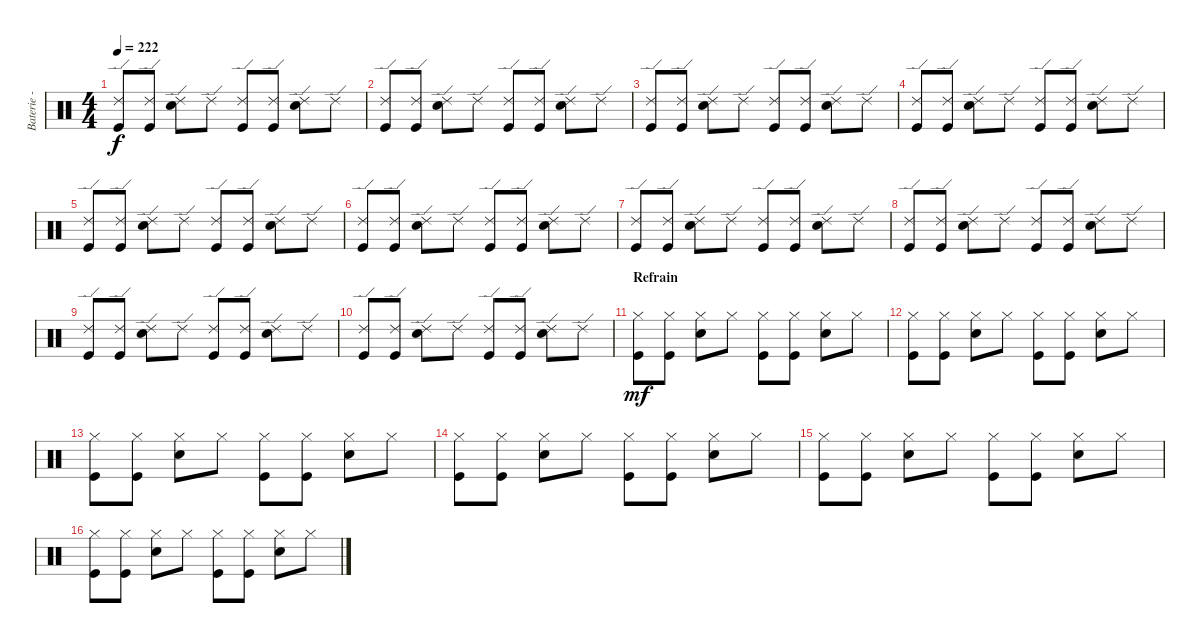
\track ("Baterie - Guillaume" "Baterie - ") {instrument percussion}
\staff {score}
\articulation defaults
\ts (4 4)
\tempo 222
\clef neutral
\ks c
("Ride (edge) 2" "Kick (hit)").8{dy f} ("Ride (edge) 2" "Kick (hit)").8 ("Ride (edge) 2" "Snare (hit) 2").8 "Ride (edge) 2".8 ("Ride (edge) 2" "Kick (hit)").8 ("Ride (edge) 2" "Kick (hit)").8 ("Ride (edge) 2" "Snare (hit) 2").8 "Ride (edge) 2".8 |
("Ride (edge) 2" "Kick (hit)").8 ("Ride (edge) 2" "Kick (hit)").8 ("Ride (edge) 2" "Snare (hit) 2").8 "Ride (edge) 2".8 ("Ride (edge) 2" "Kick (hit)").8 ("Ride (edge) 2" "Kick (hit)").8 ("Ride (edge) 2" "Snare (hit) 2").8 "Ride (edge) 2".8 |
("Ride (edge) 2" "Kick (hit)").8 ("Ride (edge) 2" "Kick (hit)").8 ("Ride (edge) 2" "Snare (hit) 2").8 "Ride (edge) 2".8 ("Ride (edge) 2" "Kick (hit)").8 ("Ride (edge) 2" "Kick (hit)").8 ("Ride (edge) 2" "Snare (hit) 2").8 "Ride (edge) 2".8 |
("Ride (edge) 2" "Kick (hit)").8 ("Ride (edge) 2" "Kick (hit)").8 ("Ride (edge) 2" "Snare (hit) 2").8 "Ride (edge) 2".8 ("Ride (edge) 2" "Kick (hit)").8 ("Ride (edge) 2" "Kick (hit)").8 ("Ride (edge) 2" "Snare (hit) 2").8 "Ride (edge) 2".8 |
("Ride (edge) 2" "Kick (hit)").8 ("Ride (edge) 2" "Kick (hit)").8 ("Ride (edge) 2" "Snare (hit) 2").8 "Ride (edge) 2".8 ("Ride (edge) 2" "Kick (hit)").8 ("Ride (edge) 2" "Kick (hit)").8 ("Ride (edge) 2" "Snare (hit) 2").8 "Ride (edge) 2".8 |
("Ride (edge) 2" "Kick (hit)").8 ("Ride (edge) 2" "Kick (hit)").8 ("Ride (edge) 2" "Snare (hit) 2").8 "Ride (edge) 2".8 ("Ride (edge) 2" "Kick (hit)").8 ("Ride (edge) 2" "Kick (hit)").8 ("Ride (edge) 2" "Snare (hit) 2").8 "Ride (edge) 2".8 |
("Ride (edge) 2" "Kick (hit)").8 ("Ride (edge) 2" "Kick (hit)").8 ("Ride (edge) 2" "Snare (hit) 2").8 "Ride (edge) 2".8 ("Ride (edge) 2" "Kick (hit)").8 ("Ride (edge) 2" "Kick (hit)").8 ("Ride (edge) 2" "Snare (hit) 2").8 "Ride (edge) 2".8 |
("Ride (edge) 2" "Kick (hit)").8 ("Ride (edge) 2" "Kick (hit)").8 ("Ride (edge) 2" "Snare (hit) 2").8 "Ride (edge) 2".8 ("Ride (edge) 2" "Kick (hit)").8 ("Ride (edge) 2" "Kick (hit)").8 ("Ride (edge) 2" "Snare (hit) 2").8 "Ride (edge) 2".8 |
("Ride (edge) 2" "Kick (hit)").8 ("Ride (edge) 2" "Kick (hit)").8 ("Ride (edge) 2" "Snare (hit) 2").8 "Ride (edge) 2".8 ("Ride (edge) 2" "Kick (hit)").8 ("Ride (edge) 2" "Kick (hit)").8 ("Ride (edge) 2" "Snare (hit) 2").8 "Ride (edge) 2".8 |
("Ride (edge) 2" "Kick (hit)").8 ("Ride (edge) 2" "Kick (hit)").8 ("Ride (edge) 2" "Snare (hit) 2").8 "Ride (edge) 2".8 ("Ride (edge) 2" "Kick (hit)").8 ("Ride (edge) 2" "Kick (hit)").8 ("Ride (edge) 2" "Snare (hit) 2").8 "Ride (edge) 2".8 |
\section ("" "Refrain")
("Hi-Hat (closed)" "Kick (hit)").8{dy mf} ("Hi-Hat (closed)" "Kick (hit)").8 ("Hi-Hat (closed)" "Snare (hit) 2").8 "Hi-Hat (closed)".8 ("Hi-Hat (closed)" "Kick (hit)").8 ("Hi-Hat (closed)" "Kick (hit)").8 ("Hi-Hat (closed)" "Snare (hit) 2").8 "Hi-Hat (closed)".8 |
("Hi-Hat (closed)" "Kick (hit)").8 ("Hi-Hat (closed)" "Kick (hit)").8 ("Hi-Hat (closed)" "Snare (hit) 2").8 "Hi-Hat (closed)".8 ("Hi-Hat (closed)" "Kick (hit)").8 ("Hi-Hat (closed)" "Kick (hit)").8 ("Hi-Hat (closed)" "Snare (hit) 2").8 "Hi-Hat (closed)".8 |
("Hi-Hat (closed)" "Kick (hit)").8 ("Hi-Hat (closed)" "Kick (hit)").8 ("Hi-Hat (closed)" "Snare (hit) 2").8 "Hi-Hat (closed)".8 ("Hi-Hat (closed)" "Kick (hit)").8 ("Hi-Hat (closed)" "Kick (hit)").8 ("Hi-Hat (closed)" "Snare (hit) 2").8 "Hi-Hat (closed)".8 |
("Hi-Hat (closed)" "Kick (hit)").8 ("Hi-Hat (closed)" "Kick (hit)").8 ("Hi-Hat (closed)" "Snare (hit) 2").8 "Hi-Hat (closed)".8 ("Hi-Hat (closed)" "Kick (hit)").8 ("Hi-Hat (closed)" "Kick (hit)").8 ("Hi-Hat (closed)" "Snare (hit) 2").8 "Hi-Hat (closed)".8 |
("Hi-Hat (closed)" "Kick (hit)").8 ("Hi-Hat (closed)" "Kick (hit)").8 ("Hi-Hat (closed)" "Snare (hit) 2").8 "Hi-Hat (closed)".8 ("Hi-Hat (closed)" "Kick (hit)").8 ("Hi-Hat (closed)" "Kick (hit)").8 ("Hi-Hat (closed)" "Snare (hit) 2").8 "Hi-Hat (closed)".8 |
("Hi-Hat (closed)" "Kick (hit)").8 ("Hi-Hat (closed)" "Kick (hit)").8 ("Hi-Hat (closed)" "Snare (hit) 2").8 "Hi-Hat (closed)".8 ("Hi-Hat (closed)" "Kick (hit)").8 ("Hi-Hat (closed)" "Kick (hit)").8 ("Hi-Hat (closed)" "Snare (hit) 2").8 "Hi-Hat (closed)".8
